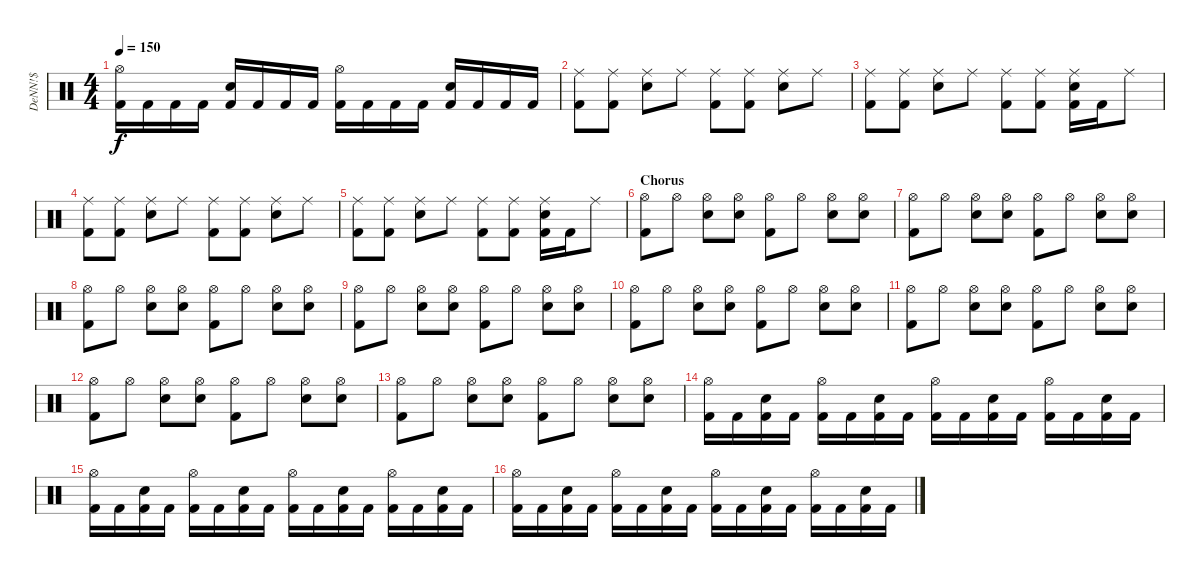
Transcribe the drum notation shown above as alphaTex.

\track ("DeNN!$" "DeNN!$") {instrument percussion}
\staff {score}
\articulation defaults
\ts (4 4)
\tempo 150
\clef neutral
\ks c
("Hi-Hat (open)" "Kick (hit) 2").16{dy f} "Kick (hit) 2".16 "Kick (hit) 2".16 "Kick (hit) 2".16 ("Snare (hit) 2" "Kick (hit) 2").16 "Kick (hit) 2".16 "Kick (hit) 2".16 "Kick (hit) 2".16 ("Hi-Hat (open)" "Kick (hit) 2").16 "Kick (hit) 2".16 "Kick (hit) 2".16 "Kick (hit) 2".16 ("Snare (hit) 2" "Kick (hit) 2").16 "Kick (hit) 2".16 "Kick (hit) 2".16 "Kick (hit) 2".16 |
("Ride (middle)" "Kick (hit) 2").8 ("Ride (middle)" "Kick (hit) 2").8 ("Ride (middle)" "Snare (hit) 2").8 "Ride (middle)".8 ("Ride (middle)" "Kick (hit) 2").8 ("Ride (middle)" "Kick (hit) 2").8 ("Ride (middle)" "Snare (hit) 2").8 "Ride (middle)".8 |
("Ride (middle)" "Kick (hit) 2").8 ("Ride (middle)" "Kick (hit) 2").8 ("Ride (middle)" "Snare (hit) 2").8 "Ride (middle)".8 ("Ride (middle)" "Kick (hit) 2").8 ("Ride (middle)" "Kick (hit) 2").8 ("Ride (middle)" "Snare (hit) 2" "Kick (hit) 2").16 "Kick (hit) 2".16 "Ride (middle)".8 |
("Ride (middle)" "Kick (hit) 2").8 ("Ride (middle)" "Kick (hit) 2").8 ("Ride (middle)" "Snare (hit) 2").8 "Ride (middle)".8 ("Ride (middle)" "Kick (hit) 2").8 ("Ride (middle)" "Kick (hit) 2").8 ("Ride (middle)" "Snare (hit) 2").8 "Ride (middle)".8 |
("Ride (middle)" "Kick (hit) 2").8 ("Ride (middle)" "Kick (hit) 2").8 ("Ride (middle)" "Snare (hit) 2").8 "Ride (middle)".8 ("Ride (middle)" "Kick (hit) 2").8 ("Ride (middle)" "Kick (hit) 2").8 ("Ride (middle)" "Snare (hit) 2" "Kick (hit) 2").16 "Kick (hit) 2".16 "Ride (middle)".8 |
\section ("" "Chorus")
("Hi-Hat (open)" "Kick (hit) 2").8 "Hi-Hat (open)".8 ("Snare (hit) 2" "Hi-Hat (open)").8 ("Snare (hit) 2" "Hi-Hat (open)").8 ("Hi-Hat (open)" "Kick (hit) 2").8 "Hi-Hat (open)".8 ("Snare (hit) 2" "Hi-Hat (open)").8 ("Snare (hit) 2" "Hi-Hat (open)").8 |
("Hi-Hat (open)" "Kick (hit) 2").8 "Hi-Hat (open)".8 ("Snare (hit) 2" "Hi-Hat (open)").8 ("Snare (hit) 2" "Hi-Hat (open)").8 ("Hi-Hat (open)" "Kick (hit) 2").8 "Hi-Hat (open)".8 ("Snare (hit) 2" "Hi-Hat (open)").8 ("Snare (hit) 2" "Hi-Hat (open)").8 |
("Hi-Hat (open)" "Kick (hit) 2").8 "Hi-Hat (open)".8 ("Snare (hit) 2" "Hi-Hat (open)").8 ("Snare (hit) 2" "Hi-Hat (open)").8 ("Hi-Hat (open)" "Kick (hit) 2").8 "Hi-Hat (open)".8 ("Snare (hit) 2" "Hi-Hat (open)").8 ("Snare (hit) 2" "Hi-Hat (open)").8 |
("Hi-Hat (open)" "Kick (hit) 2").8 "Hi-Hat (open)".8 ("Snare (hit) 2" "Hi-Hat (open)").8 ("Snare (hit) 2" "Hi-Hat (open)").8 ("Hi-Hat (open)" "Kick (hit) 2").8 "Hi-Hat (open)".8 ("Snare (hit) 2" "Hi-Hat (open)").8 ("Snare (hit) 2" "Hi-Hat (open)").8 |
("Hi-Hat (open)" "Kick (hit) 2").8 "Hi-Hat (open)".8 ("Snare (hit) 2" "Hi-Hat (open)").8 ("Snare (hit) 2" "Hi-Hat (open)").8 ("Hi-Hat (open)" "Kick (hit) 2").8 "Hi-Hat (open)".8 ("Snare (hit) 2" "Hi-Hat (open)").8 ("Snare (hit) 2" "Hi-Hat (open)").8 |
("Hi-Hat (open)" "Kick (hit) 2").8 "Hi-Hat (open)".8 ("Snare (hit) 2" "Hi-Hat (open)").8 ("Snare (hit) 2" "Hi-Hat (open)").8 ("Hi-Hat (open)" "Kick (hit) 2").8 "Hi-Hat (open)".8 ("Snare (hit) 2" "Hi-Hat (open)").8 ("Snare (hit) 2" "Hi-Hat (open)").8 |
("Hi-Hat (open)" "Kick (hit) 2").8 "Hi-Hat (open)".8 ("Snare (hit) 2" "Hi-Hat (open)").8 ("Snare (hit) 2" "Hi-Hat (open)").8 ("Hi-Hat (open)" "Kick (hit) 2").8 "Hi-Hat (open)".8 ("Snare (hit) 2" "Hi-Hat (open)").8 ("Snare (hit) 2" "Hi-Hat (open)").8 |
("Hi-Hat (open)" "Kick (hit) 2").8 "Hi-Hat (open)".8 ("Snare (hit) 2" "Hi-Hat (open)").8 ("Snare (hit) 2" "Hi-Hat (open)").8 ("Hi-Hat (open)" "Kick (hit) 2").8 "Hi-Hat (open)".8 ("Snare (hit) 2" "Hi-Hat (open)").8 ("Snare (hit) 2" "Hi-Hat (open)").8 |
("Hi-Hat (open)" "Kick (hit) 2").16 "Kick (hit) 2".16 ("Snare (hit) 2" "Kick (hit) 2").16 "Kick (hit) 2".16 ("Hi-Hat (open)" "Kick (hit) 2").16 "Kick (hit) 2".16 ("Snare (hit) 2" "Kick (hit) 2").16 "Kick (hit) 2".16 ("Hi-Hat (open)" "Kick (hit) 2").16 "Kick (hit) 2".16 ("Snare (hit) 2" "Kick (hit) 2").16 "Kick (hit) 2".16 ("Hi-Hat (open)" "Kick (hit) 2").16 "Kick (hit) 2".16 ("Snare (hit) 2" "Kick (hit) 2").16 "Kick (hit) 2".16 |
("Hi-Hat (open)" "Kick (hit) 2").16 "Kick (hit) 2".16 ("Snare (hit) 2" "Kick (hit) 2").16 "Kick (hit) 2".16 ("Hi-Hat (open)" "Kick (hit) 2").16 "Kick (hit) 2".16 ("Snare (hit) 2" "Kick (hit) 2").16 "Kick (hit) 2".16 ("Hi-Hat (open)" "Kick (hit) 2").16 "Kick (hit) 2".16 ("Snare (hit) 2" "Kick (hit) 2").16 "Kick (hit) 2".16 ("Hi-Hat (open)" "Kick (hit) 2").16 "Kick (hit) 2".16 ("Snare (hit) 2" "Kick (hit) 2").16 "Kick (hit) 2".16 |
("Hi-Hat (open)" "Kick (hit) 2").16 "Kick (hit) 2".16 ("Snare (hit) 2" "Kick (hit) 2").16 "Kick (hit) 2".16 ("Hi-Hat (open)" "Kick (hit) 2").16 "Kick (hit) 2".16 ("Snare (hit) 2" "Kick (hit) 2").16 "Kick (hit) 2".16 ("Hi-Hat (open)" "Kick (hit) 2").16 "Kick (hit) 2".16 ("Snare (hit) 2" "Kick (hit) 2").16 "Kick (hit) 2".16 ("Hi-Hat (open)" "Kick (hit) 2").16 "Kick (hit) 2".16 ("Snare (hit) 2" "Kick (hit) 2").16 "Kick (hit) 2".16
